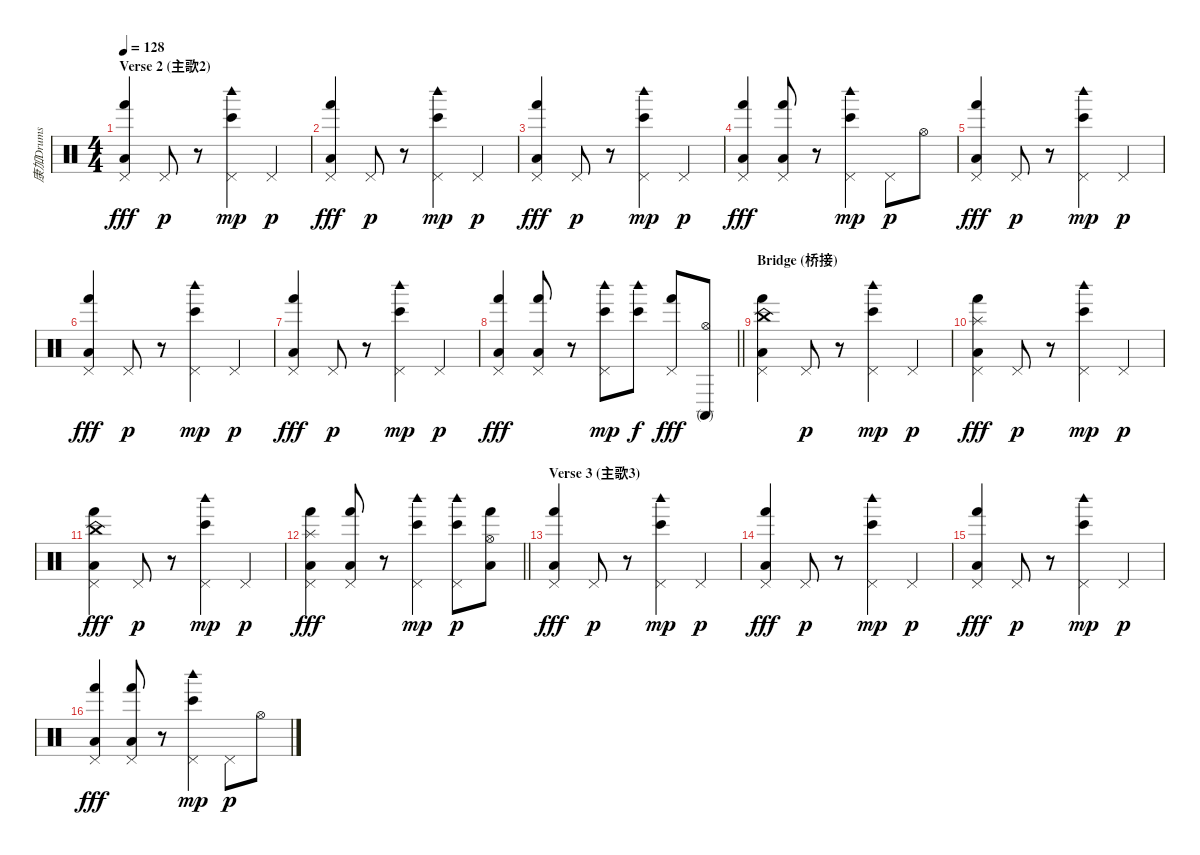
\track ("康加Drums" "康加Drums") {instrument percussion}
\staff {score}
\articulation defaults
\ts (4 4)
\section ("" "Verse 2 (主歌2)")
\tempo 128
\clef neutral
\ks c
("Pedal Hi-Hat (hit)" "Hand (hit)" "Low Floor Tom (hit)").4{dy fff} "Pedal Hi-Hat (hit)".8{dy p} r.8 ("Bongo High (hit)" "Woodblock high (hit)" "Pedal Hi-Hat (hit)").4{dy mp} "Pedal Hi-Hat (hit)".4{dy p} |
("Pedal Hi-Hat (hit)" "Hand (hit)" "Low Floor Tom (hit)").4{dy fff} "Pedal Hi-Hat (hit)".8{dy p} r.8 ("Bongo High (hit)" "Woodblock high (hit)" "Pedal Hi-Hat (hit)").4{dy mp} "Pedal Hi-Hat (hit)".4{dy p} |
("Pedal Hi-Hat (hit)" "Hand (hit)" "Low Floor Tom (hit)").4{dy fff} "Pedal Hi-Hat (hit)".8{dy p} r.8 ("Bongo High (hit)" "Woodblock high (hit)" "Pedal Hi-Hat (hit)").4{dy mp} "Pedal Hi-Hat (hit)".4{dy p} |
("Pedal Hi-Hat (hit)" "Hand (hit)" "Low Floor Tom (hit)").4{dy fff} ("Pedal Hi-Hat (hit)" "Hand (hit)" "Low Floor Tom (hit)").8 r.8 ("Bongo High (hit)" "Woodblock high (hit)" "Pedal Hi-Hat (hit)").4{dy mp} "Pedal Hi-Hat (hit)".8{dy p} "Hi-Hat (open)".8 |
("Pedal Hi-Hat (hit)" "Hand (hit)" "Low Floor Tom (hit)").4{dy fff} "Pedal Hi-Hat (hit)".8{dy p} r.8 ("Bongo High (hit)" "Woodblock high (hit)" "Pedal Hi-Hat (hit)").4{dy mp} "Pedal Hi-Hat (hit)".4{dy p} |
("Pedal Hi-Hat (hit)" "Hand (hit)" "Low Floor Tom (hit)").4{dy fff} "Pedal Hi-Hat (hit)".8{dy p} r.8 ("Bongo High (hit)" "Woodblock high (hit)" "Pedal Hi-Hat (hit)").4{dy mp} "Pedal Hi-Hat (hit)".4{dy p} |
("Pedal Hi-Hat (hit)" "Hand (hit)" "Low Floor Tom (hit)").4{dy fff} "Pedal Hi-Hat (hit)".8{dy p} r.8 ("Bongo High (hit)" "Woodblock high (hit)" "Pedal Hi-Hat (hit)").4{dy mp} "Pedal Hi-Hat (hit)".4{dy p} |
\barLineRight lightlight
("Pedal Hi-Hat (hit)" "Hand (hit)" "Low Floor Tom (hit)").4{dy fff} ("Pedal Hi-Hat (hit)" "Hand (hit)" "Low Floor Tom (hit)").8 r.8 ("Bongo High (hit)" "Woodblock high (hit)" "Pedal Hi-Hat (hit)").8{dy mp} ("Bongo High (hit)" "Woodblock high (hit)").8{dy f} ("Pedal Hi-Hat (hit)" "Hand (hit)").8{dy fff} ("Hi-Hat (open)" "Conga high (mute)").8 |
\section ("" "Bridge (桥接)")
("China (hit)" "Pedal Hi-Hat (hit)" "Hand (hit)" "Low Floor Tom (hit)").4 "Pedal Hi-Hat (hit)".8{dy p} r.8 ("Bongo High (hit)" "Woodblock high (hit)" "Pedal Hi-Hat (hit)").4{dy mp} "Pedal Hi-Hat (hit)".4{dy p} |
("Splash (hit)" "Pedal Hi-Hat (hit)" "Hand (hit)" "Low Floor Tom (hit)").4{dy fff} "Pedal Hi-Hat (hit)".8{dy p} r.8 ("Bongo High (hit)" "Woodblock high (hit)" "Pedal Hi-Hat (hit)").4{dy mp} "Pedal Hi-Hat (hit)".4{dy p} |
("China (hit)" "Pedal Hi-Hat (hit)" "Hand (hit)" "Low Floor Tom (hit)").4{dy fff} "Pedal Hi-Hat (hit)".8{dy p} r.8 ("Bongo High (hit)" "Woodblock high (hit)" "Pedal Hi-Hat (hit)").4{dy mp} "Pedal Hi-Hat (hit)".4{dy p} |
\barLineRight lightlight
("Splash (hit)" "Pedal Hi-Hat (hit)" "Hand (hit)" "Low Floor Tom (hit)").4{dy fff} ("Pedal Hi-Hat (hit)" "Hand (hit)" "Low Floor Tom (hit)").8 r.8 ("Bongo High (hit)" "Woodblock high (hit)" "Pedal Hi-Hat (hit)").4{dy mp} ("Bongo High (hit)" "Woodblock high (hit)" "Pedal Hi-Hat (hit)").8{dy p} ("Hi-Hat (open)" "Hand (hit)" "Low Floor Tom (hit)").8 |
\section ("" "Verse 3 (主歌3)")
("Pedal Hi-Hat (hit)" "Hand (hit)" "Low Floor Tom (hit)").4{dy fff} "Pedal Hi-Hat (hit)".8{dy p} r.8 ("Bongo High (hit)" "Woodblock high (hit)" "Pedal Hi-Hat (hit)").4{dy mp} "Pedal Hi-Hat (hit)".4{dy p} |
("Pedal Hi-Hat (hit)" "Hand (hit)" "Low Floor Tom (hit)").4{dy fff} "Pedal Hi-Hat (hit)".8{dy p} r.8 ("Bongo High (hit)" "Woodblock high (hit)" "Pedal Hi-Hat (hit)").4{dy mp} "Pedal Hi-Hat (hit)".4{dy p} |
("Pedal Hi-Hat (hit)" "Hand (hit)" "Low Floor Tom (hit)").4{dy fff} "Pedal Hi-Hat (hit)".8{dy p} r.8 ("Bongo High (hit)" "Woodblock high (hit)" "Pedal Hi-Hat (hit)").4{dy mp} "Pedal Hi-Hat (hit)".4{dy p} |
("Pedal Hi-Hat (hit)" "Hand (hit)" "Low Floor Tom (hit)").4{dy fff} ("Pedal Hi-Hat (hit)" "Hand (hit)" "Low Floor Tom (hit)").8 r.8 ("Bongo High (hit)" "Woodblock high (hit)" "Pedal Hi-Hat (hit)").4{dy mp} "Pedal Hi-Hat (hit)".8{dy p} "Hi-Hat (open)".8
